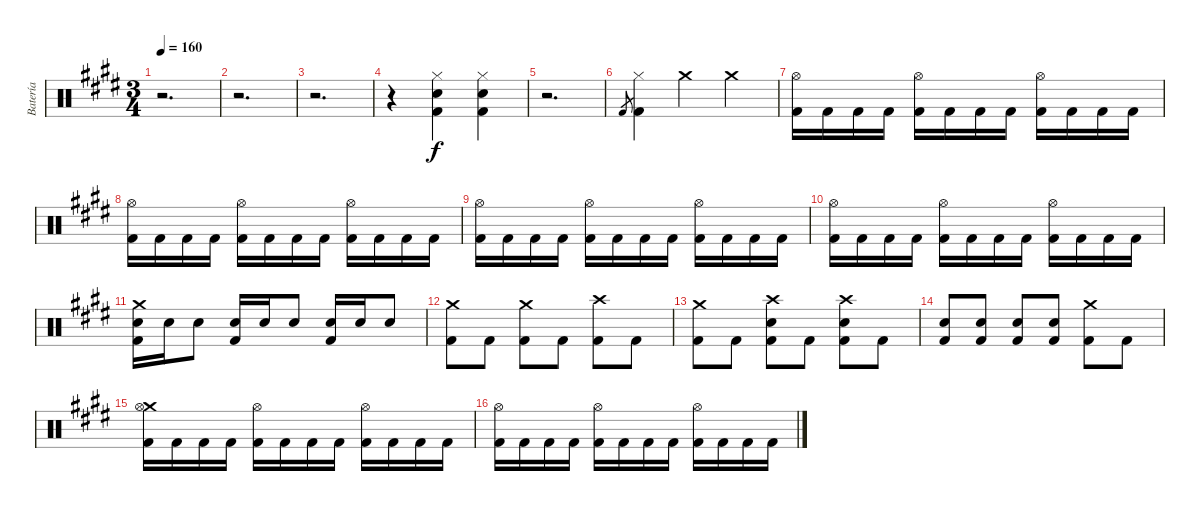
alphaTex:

\track ("Batería" "Batería") {instrument percussion}
\staff {score}
\articulation defaults
\ts (3 4)
\tempo 160
\clef neutral
\ks c#minor
r.2{d dy f} |
r.2{d} |
r.2{d} |
r.4 ("Hi-Hat (closed)" "Snare (hit) 2" "Kick (hit) 2").4 ("Hi-Hat (closed)" "Snare (hit) 2" "Kick (hit) 2").4 |
r.2{d} |
"Kick (hit) 2".8{gr} ("Hi-Hat (closed)" "Kick (hit) 2").4 "Crash medium (hit)".4 "Crash medium (hit)".4 |
("Hi-Hat (open)" "Kick (hit) 2").16 "Kick (hit) 2".16 "Kick (hit) 2".16 "Kick (hit) 2".16 ("Hi-Hat (open)" "Kick (hit) 2").16 "Kick (hit) 2".16 "Kick (hit) 2".16 "Kick (hit) 2".16 ("Hi-Hat (open)" "Kick (hit) 2").16 "Kick (hit) 2".16 "Kick (hit) 2".16 "Kick (hit) 2".16 |
("Hi-Hat (open)" "Kick (hit) 2").16 "Kick (hit) 2".16 "Kick (hit) 2".16 "Kick (hit) 2".16 ("Hi-Hat (open)" "Kick (hit) 2").16 "Kick (hit) 2".16 "Kick (hit) 2".16 "Kick (hit) 2".16 ("Hi-Hat (open)" "Kick (hit) 2").16 "Kick (hit) 2".16 "Kick (hit) 2".16 "Kick (hit) 2".16 |
("Hi-Hat (open)" "Kick (hit) 2").16 "Kick (hit) 2".16 "Kick (hit) 2".16 "Kick (hit) 2".16 ("Hi-Hat (open)" "Kick (hit) 2").16 "Kick (hit) 2".16 "Kick (hit) 2".16 "Kick (hit) 2".16 ("Hi-Hat (open)" "Kick (hit) 2").16 "Kick (hit) 2".16 "Kick (hit) 2".16 "Kick (hit) 2".16 |
("Hi-Hat (open)" "Kick (hit) 2").16 "Kick (hit) 2".16 "Kick (hit) 2".16 "Kick (hit) 2".16 ("Hi-Hat (open)" "Kick (hit) 2").16 "Kick (hit) 2".16 "Kick (hit) 2".16 "Kick (hit) 2".16 ("Hi-Hat (open)" "Kick (hit) 2").16 "Kick (hit) 2".16 "Kick (hit) 2".16 "Kick (hit) 2".16 |
("Crash medium (hit)" "Snare (hit) 2" "Kick (hit) 2").16 "Snare (hit) 2".16 "Snare (hit) 2".8 ("Snare (hit) 2" "Kick (hit) 2").16 "Snare (hit) 2".16 "Snare (hit) 2".8 ("Snare (hit) 2" "Kick (hit) 2").16 "Snare (hit) 2".16 "Snare (hit) 2".8 |
("Crash medium (hit)" "Kick (hit) 2").8 "Kick (hit) 2".8 ("Crash medium (hit)" "Kick (hit) 2").8 "Kick (hit) 2".8 ("Crash high (hit)" "Kick (hit) 2").8 "Kick (hit) 2".8 |
("Crash medium (hit)" "Kick (hit) 2").8 "Kick (hit) 2".8 ("Crash high (hit)" "Snare (hit) 2" "Kick (hit) 2").8 "Kick (hit) 2".8 ("Crash high (hit)" "Snare (hit) 2" "Kick (hit) 2").8 "Kick (hit) 2".8 |
("Snare (hit) 2" "Kick (hit) 2").8 ("Snare (hit) 2" "Kick (hit) 2").8 ("Snare (hit) 2" "Kick (hit) 2").8 ("Snare (hit) 2" "Kick (hit) 2").8 ("Crash medium (hit)" "Kick (hit) 2").8 "Kick (hit) 2".8 |
("Crash medium (hit)" "Hi-Hat (open)" "Kick (hit) 2").16 "Kick (hit) 2".16 "Kick (hit) 2".16 "Kick (hit) 2".16 ("Hi-Hat (open)" "Kick (hit) 2").16 "Kick (hit) 2".16 "Kick (hit) 2".16 "Kick (hit) 2".16 ("Hi-Hat (open)" "Kick (hit) 2").16 "Kick (hit) 2".16 "Kick (hit) 2".16 "Kick (hit) 2".16 |
("Hi-Hat (open)" "Kick (hit) 2").16 "Kick (hit) 2".16 "Kick (hit) 2".16 "Kick (hit) 2".16 ("Hi-Hat (open)" "Kick (hit) 2").16 "Kick (hit) 2".16 "Kick (hit) 2".16 "Kick (hit) 2".16 ("Hi-Hat (open)" "Kick (hit) 2").16 "Kick (hit) 2".16 "Kick (hit) 2".16 "Kick (hit) 2".16
